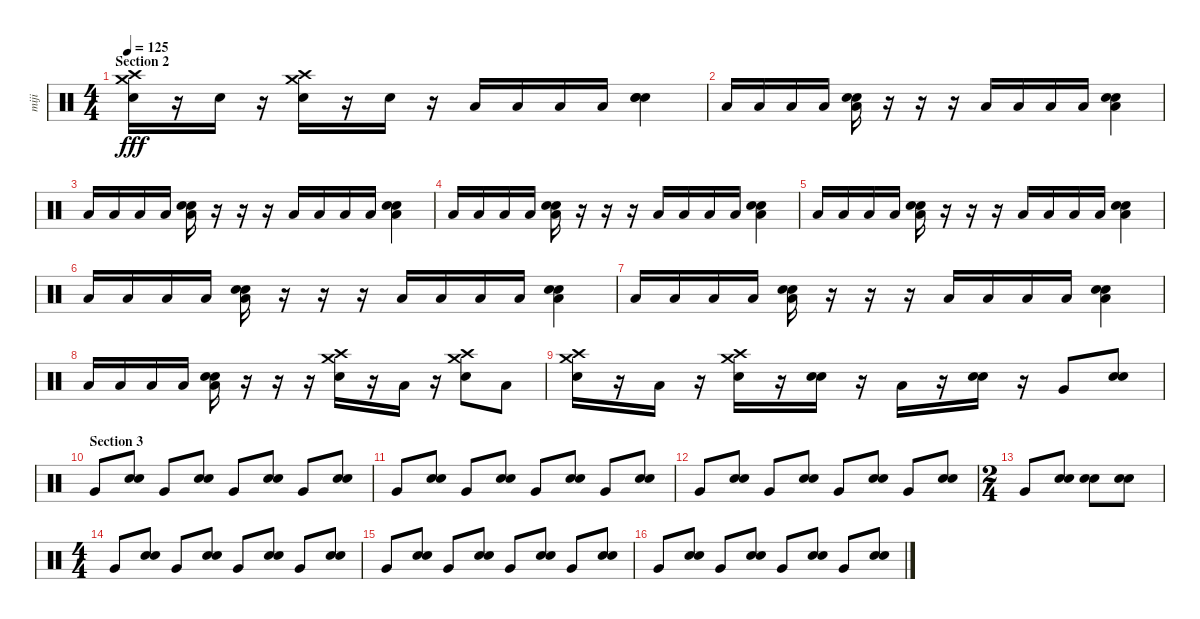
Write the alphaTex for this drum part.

\track ("miji" "miji") {instrument percussion}
\staff {score}
\articulation defaults
\ts (4 4)
\section ("" "Section 2")
\tempo 125
\clef neutral
\ks c
("Crash high (hit)" "Electric Snare (hit)" "Crash medium (hit)").16{dy fff} r.16 "Electric Snare (hit)".16 r.16 ("Crash high (hit)" "Electric Snare (hit)" "Crash medium (hit)").16 r.16 "Electric Snare (hit)".16 r.16 "Low Floor Tom (hit)".16 "Low Floor Tom (hit)".16 "Low Floor Tom (hit)".16 "Low Floor Tom (hit)".16 ("Electric Snare (hit)" "Electric Snare (hit)" "Electric Snare (hit)").4 |
"Low Floor Tom (hit)".16 "Low Floor Tom (hit)".16 "Low Floor Tom (hit)".16 "Low Floor Tom (hit)".16 ("Low Floor Tom (hit)" "Electric Snare (hit)" "Electric Snare (hit)").16 r.16 r.16 r.16 "Low Floor Tom (hit)".16 "Low Floor Tom (hit)".16 "Low Floor Tom (hit)".16 "Low Floor Tom (hit)".16 ("Low Floor Tom (hit)" "Electric Snare (hit)" "Electric Snare (hit)").4 |
"Low Floor Tom (hit)".16 "Low Floor Tom (hit)".16 "Low Floor Tom (hit)".16 "Low Floor Tom (hit)".16 ("Low Floor Tom (hit)" "Electric Snare (hit)" "Electric Snare (hit)").16 r.16 r.16 r.16 "Low Floor Tom (hit)".16 "Low Floor Tom (hit)".16 "Low Floor Tom (hit)".16 "Low Floor Tom (hit)".16 ("Low Floor Tom (hit)" "Electric Snare (hit)" "Electric Snare (hit)").4 |
"Low Floor Tom (hit)".16 "Low Floor Tom (hit)".16 "Low Floor Tom (hit)".16 "Low Floor Tom (hit)".16 ("Low Floor Tom (hit)" "Electric Snare (hit)" "Electric Snare (hit)").16 r.16 r.16 r.16 "Low Floor Tom (hit)".16 "Low Floor Tom (hit)".16 "Low Floor Tom (hit)".16 "Low Floor Tom (hit)".16 ("Low Floor Tom (hit)" "Electric Snare (hit)" "Electric Snare (hit)").4 |
"Low Floor Tom (hit)".16 "Low Floor Tom (hit)".16 "Low Floor Tom (hit)".16 "Low Floor Tom (hit)".16 ("Low Floor Tom (hit)" "Electric Snare (hit)" "Electric Snare (hit)").16 r.16 r.16 r.16 "Low Floor Tom (hit)".16 "Low Floor Tom (hit)".16 "Low Floor Tom (hit)".16 "Low Floor Tom (hit)".16 ("Low Floor Tom (hit)" "Electric Snare (hit)" "Electric Snare (hit)").4 |
"Low Floor Tom (hit)".16 "Low Floor Tom (hit)".16 "Low Floor Tom (hit)".16 "Low Floor Tom (hit)".16 ("Low Floor Tom (hit)" "Electric Snare (hit)" "Electric Snare (hit)").16 r.16 r.16 r.16 "Low Floor Tom (hit)".16 "Low Floor Tom (hit)".16 "Low Floor Tom (hit)".16 "Low Floor Tom (hit)".16 ("Low Floor Tom (hit)" "Electric Snare (hit)" "Electric Snare (hit)").4 |
"Low Floor Tom (hit)".16 "Low Floor Tom (hit)".16 "Low Floor Tom (hit)".16 "Low Floor Tom (hit)".16 ("Low Floor Tom (hit)" "Electric Snare (hit)" "Electric Snare (hit)").16 r.16 r.16 r.16 "Low Floor Tom (hit)".16 "Low Floor Tom (hit)".16 "Low Floor Tom (hit)".16 "Low Floor Tom (hit)".16 ("Low Floor Tom (hit)" "Electric Snare (hit)" "Electric Snare (hit)").4 |
"Low Floor Tom (hit)".16 "Low Floor Tom (hit)".16 "Low Floor Tom (hit)".16 "Low Floor Tom (hit)".16 ("Low Floor Tom (hit)" "Electric Snare (hit)" "Electric Snare (hit)").16 r.16 r.16 r.16 ("Crash high (hit)" "Electric Snare (hit)" "Crash medium (hit)").16 r.16 "Low Floor Tom (hit)".16 r.16 ("Crash high (hit)" "Electric Snare (hit)" "Crash medium (hit)").8 "Low Floor Tom (hit)".8 |
("Crash high (hit)" "Electric Snare (hit)" "Crash medium (hit)").16 r.16 "Low Floor Tom (hit)".16 r.16 ("Crash high (hit)" "Electric Snare (hit)" "Crash medium (hit)").16 r.16 ("Electric Snare (hit)" "Electric Snare (hit)").16 r.16 "Low Floor Tom (hit)".16 r.16 ("Electric Snare (hit)" "Electric Snare (hit)").16 r.16 "Very Low Tom (hit)".8 ("Electric Snare (hit)" "Electric Snare (hit)").8 |
\section ("" "Section 3")
"Very Low Tom (hit)".8 ("Electric Snare (hit)" "Electric Snare (hit)").8 "Very Low Tom (hit)".8 ("Electric Snare (hit)" "Electric Snare (hit)").8 "Very Low Tom (hit)".8 ("Electric Snare (hit)" "Electric Snare (hit)").8 "Very Low Tom (hit)".8 ("Electric Snare (hit)" "Electric Snare (hit)").8 |
"Very Low Tom (hit)".8 ("Electric Snare (hit)" "Electric Snare (hit)").8 "Very Low Tom (hit)".8 ("Electric Snare (hit)" "Electric Snare (hit)").8 "Very Low Tom (hit)".8 ("Electric Snare (hit)" "Electric Snare (hit)").8 "Very Low Tom (hit)".8 ("Electric Snare (hit)" "Electric Snare (hit)").8 |
"Very Low Tom (hit)".8 ("Electric Snare (hit)" "Electric Snare (hit)").8 "Very Low Tom (hit)".8 ("Electric Snare (hit)" "Electric Snare (hit)").8 "Very Low Tom (hit)".8 ("Electric Snare (hit)" "Electric Snare (hit)").8 "Very Low Tom (hit)".8 ("Electric Snare (hit)" "Electric Snare (hit)").8 |
\ts (2 4)
"Very Low Tom (hit)".8 ("Electric Snare (hit)" "Electric Snare (hit)").8 ("Electric Snare (hit)" "Electric Snare (hit)").8 ("Electric Snare (hit)" "Electric Snare (hit)").8 |
\ts (4 4)
"Very Low Tom (hit)".8 ("Electric Snare (hit)" "Electric Snare (hit)").8 "Very Low Tom (hit)".8 ("Electric Snare (hit)" "Electric Snare (hit)").8 "Very Low Tom (hit)".8 ("Electric Snare (hit)" "Electric Snare (hit)").8 "Very Low Tom (hit)".8 ("Electric Snare (hit)" "Electric Snare (hit)").8 |
"Very Low Tom (hit)".8 ("Electric Snare (hit)" "Electric Snare (hit)").8 "Very Low Tom (hit)".8 ("Electric Snare (hit)" "Electric Snare (hit)").8 "Very Low Tom (hit)".8 ("Electric Snare (hit)" "Electric Snare (hit)").8 "Very Low Tom (hit)".8 ("Electric Snare (hit)" "Electric Snare (hit)").8 |
"Very Low Tom (hit)".8 ("Electric Snare (hit)" "Electric Snare (hit)").8 "Very Low Tom (hit)".8 ("Electric Snare (hit)" "Electric Snare (hit)").8 "Very Low Tom (hit)".8 ("Electric Snare (hit)" "Electric Snare (hit)").8 "Very Low Tom (hit)".8 ("Electric Snare (hit)" "Electric Snare (hit)").8
